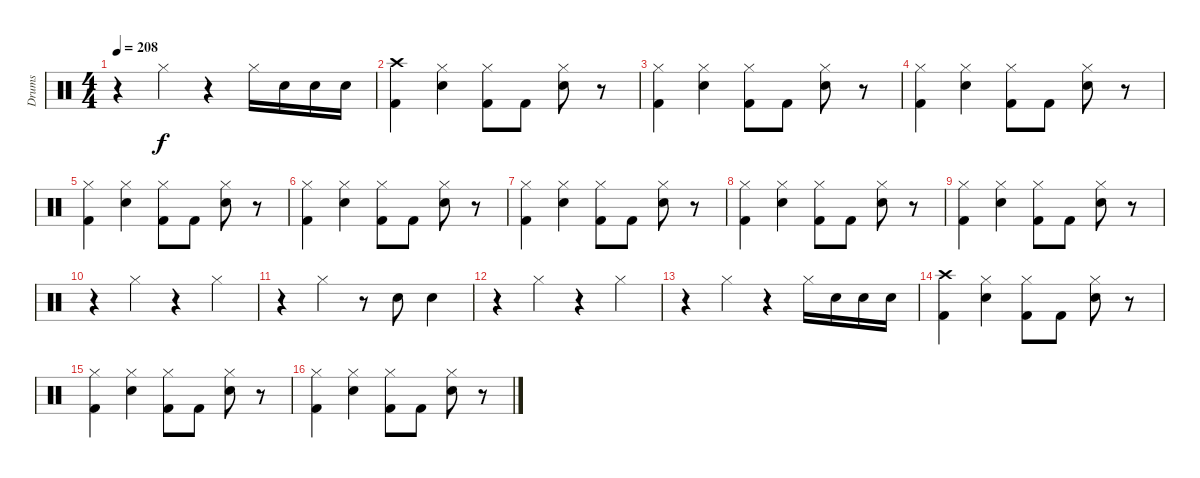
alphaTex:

\track ("Drums" "Drums") {instrument percussion}
\staff {score}
\articulation defaults
\ts (4 4)
\tempo 208
\clef neutral
\ks c
r.4{dy f} "Hi-Hat (closed)".4 r.4 "Hi-Hat (closed)".16 "Snare (hit) 2".16 "Snare (hit) 2".16 "Snare (hit) 2".16 |
("Crash high (hit)" "Kick (hit) 2").4 ("Hi-Hat (closed)" "Snare (hit) 2").4 ("Hi-Hat (closed)" "Kick (hit) 2").8 "Kick (hit) 2".8 ("Hi-Hat (closed)" "Snare (hit) 2").8 r.8 |
("Hi-Hat (closed)" "Kick (hit) 2").4 ("Hi-Hat (closed)" "Snare (hit) 2").4 ("Hi-Hat (closed)" "Kick (hit) 2").8 "Kick (hit) 2".8 ("Hi-Hat (closed)" "Snare (hit) 2").8 r.8 |
("Hi-Hat (closed)" "Kick (hit) 2").4 ("Hi-Hat (closed)" "Snare (hit) 2").4 ("Hi-Hat (closed)" "Kick (hit) 2").8 "Kick (hit) 2".8 ("Hi-Hat (closed)" "Snare (hit) 2").8 r.8 |
("Hi-Hat (closed)" "Kick (hit) 2").4 ("Hi-Hat (closed)" "Snare (hit) 2").4 ("Hi-Hat (closed)" "Kick (hit) 2").8 "Kick (hit) 2".8 ("Hi-Hat (closed)" "Snare (hit) 2").8 r.8 |
("Hi-Hat (closed)" "Kick (hit) 2").4 ("Hi-Hat (closed)" "Snare (hit) 2").4 ("Hi-Hat (closed)" "Kick (hit) 2").8 "Kick (hit) 2".8 ("Hi-Hat (closed)" "Snare (hit) 2").8 r.8 |
("Hi-Hat (closed)" "Kick (hit) 2").4 ("Hi-Hat (closed)" "Snare (hit) 2").4 ("Hi-Hat (closed)" "Kick (hit) 2").8 "Kick (hit) 2".8 ("Hi-Hat (closed)" "Snare (hit) 2").8 r.8 |
("Hi-Hat (closed)" "Kick (hit) 2").4 ("Hi-Hat (closed)" "Snare (hit) 2").4 ("Hi-Hat (closed)" "Kick (hit) 2").8 "Kick (hit) 2".8 ("Hi-Hat (closed)" "Snare (hit) 2").8 r.8 |
("Hi-Hat (closed)" "Kick (hit) 2").4 ("Hi-Hat (closed)" "Snare (hit) 2").4 ("Hi-Hat (closed)" "Kick (hit) 2").8 "Kick (hit) 2".8 ("Hi-Hat (closed)" "Snare (hit) 2").8 r.8 |
r.4 "Hi-Hat (closed)".4 r.4 "Hi-Hat (closed)".4 |
r.4 "Hi-Hat (closed)".4 r.8 "Snare (hit) 2".8 "Snare (hit) 2".4 |
r.4 "Hi-Hat (closed)".4 r.4 "Hi-Hat (closed)".4 |
r.4 "Hi-Hat (closed)".4 r.4 "Hi-Hat (closed)".16 "Snare (hit) 2".16 "Snare (hit) 2".16 "Snare (hit) 2".16 |
("Crash high (hit)" "Kick (hit) 2").4 ("Hi-Hat (closed)" "Snare (hit) 2").4 ("Hi-Hat (closed)" "Kick (hit) 2").8 "Kick (hit) 2".8 ("Hi-Hat (closed)" "Snare (hit) 2").8 r.8 |
("Hi-Hat (closed)" "Kick (hit) 2").4 ("Hi-Hat (closed)" "Snare (hit) 2").4 ("Hi-Hat (closed)" "Kick (hit) 2").8 "Kick (hit) 2".8 ("Hi-Hat (closed)" "Snare (hit) 2").8 r.8 |
("Hi-Hat (closed)" "Kick (hit) 2").4 ("Hi-Hat (closed)" "Snare (hit) 2").4 ("Hi-Hat (closed)" "Kick (hit) 2").8 "Kick (hit) 2".8 ("Hi-Hat (closed)" "Snare (hit) 2").8 r.8
